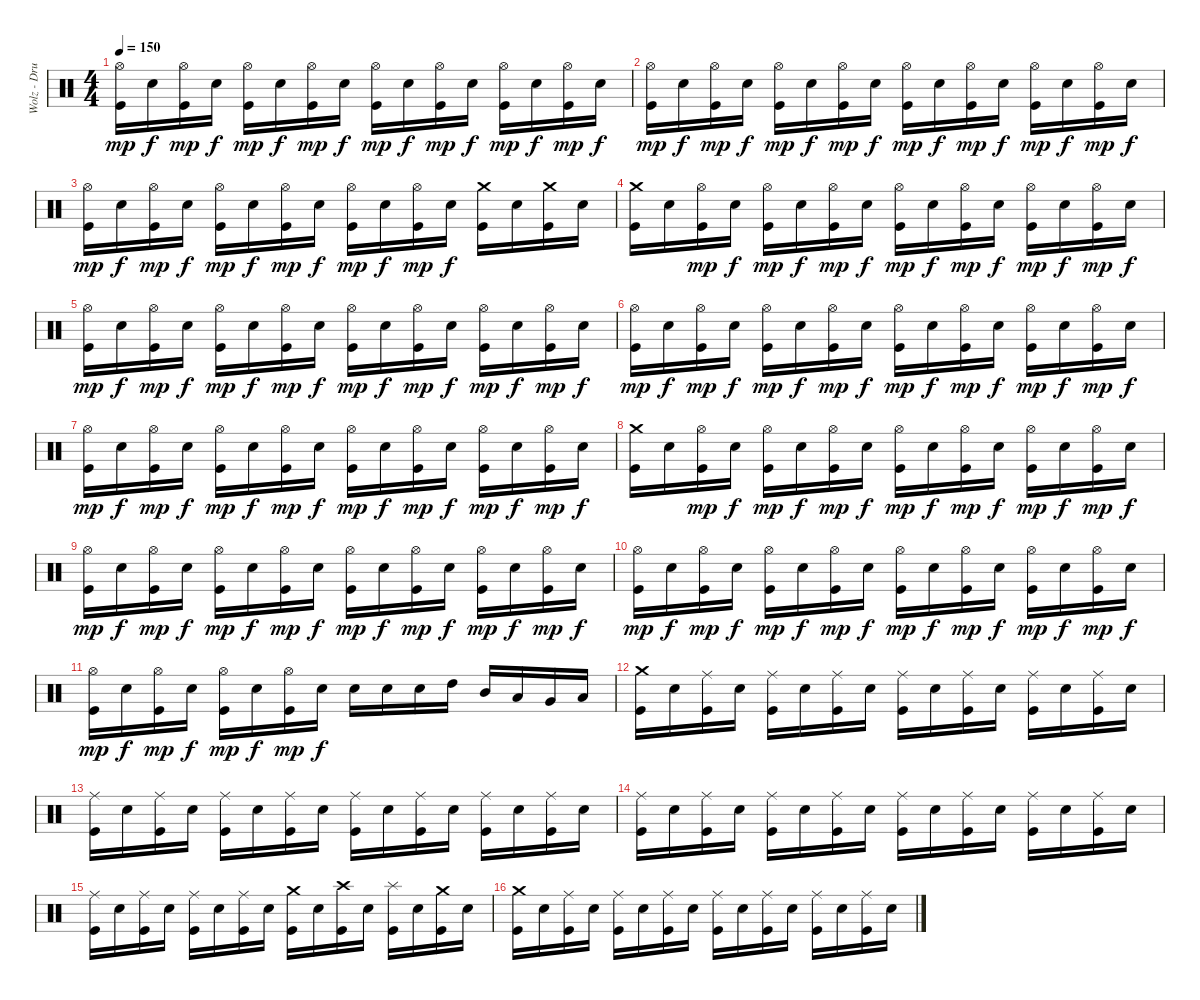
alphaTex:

\track ("Wolz - Drums" "Wolz - Dru") {instrument percussion}
\staff {score}
\articulation defaults
\ts (4 4)
\tempo 150
\clef neutral
\ks c
("Hi-Hat (open)" "Kick (hit)").16{dy mp} "Electric Snare (hit)".16{dy f} ("Hi-Hat (open)" "Kick (hit)").16{dy mp} "Electric Snare (hit)".16{dy f} ("Hi-Hat (open)" "Kick (hit)").16{dy mp} "Electric Snare (hit)".16{dy f} ("Hi-Hat (open)" "Kick (hit)").16{dy mp} "Electric Snare (hit)".16{dy f} ("Hi-Hat (open)" "Kick (hit)").16{dy mp} "Electric Snare (hit)".16{dy f} ("Hi-Hat (open)" "Kick (hit)").16{dy mp} "Electric Snare (hit)".16{dy f} ("Hi-Hat (open)" "Kick (hit)").16{dy mp} "Electric Snare (hit)".16{dy f} ("Hi-Hat (open)" "Kick (hit)").16{dy mp} "Electric Snare (hit)".16{dy f} |
("Hi-Hat (open)" "Kick (hit)").16{dy mp} "Electric Snare (hit)".16{dy f} ("Hi-Hat (open)" "Kick (hit)").16{dy mp} "Electric Snare (hit)".16{dy f} ("Hi-Hat (open)" "Kick (hit)").16{dy mp} "Electric Snare (hit)".16{dy f} ("Hi-Hat (open)" "Kick (hit)").16{dy mp} "Electric Snare (hit)".16{dy f} ("Hi-Hat (open)" "Kick (hit)").16{dy mp} "Electric Snare (hit)".16{dy f} ("Hi-Hat (open)" "Kick (hit)").16{dy mp} "Electric Snare (hit)".16{dy f} ("Hi-Hat (open)" "Kick (hit)").16{dy mp} "Electric Snare (hit)".16{dy f} ("Hi-Hat (open)" "Kick (hit)").16{dy mp} "Electric Snare (hit)".16{dy f} |
("Hi-Hat (open)" "Kick (hit)").16{dy mp} "Electric Snare (hit)".16{dy f} ("Hi-Hat (open)" "Kick (hit)").16{dy mp} "Electric Snare (hit)".16{dy f} ("Hi-Hat (open)" "Kick (hit)").16{dy mp} "Electric Snare (hit)".16{dy f} ("Hi-Hat (open)" "Kick (hit)").16{dy mp} "Electric Snare (hit)".16{dy f} ("Hi-Hat (open)" "Kick (hit)").16{dy mp} "Electric Snare (hit)".16{dy f} ("Hi-Hat (open)" "Kick (hit)").16{dy mp} "Electric Snare (hit)".16{dy f} ("Crash medium (hit)" "Kick (hit)").16 "Electric Snare (hit)".16 ("Crash medium (hit)" "Kick (hit)").16 "Electric Snare (hit)".16 |
("Crash medium (hit)" "Kick (hit)").16 "Electric Snare (hit)".16 ("Hi-Hat (open)" "Kick (hit)").16{dy mp} "Electric Snare (hit)".16{dy f} ("Hi-Hat (open)" "Kick (hit)").16{dy mp} "Electric Snare (hit)".16{dy f} ("Hi-Hat (open)" "Kick (hit)").16{dy mp} "Electric Snare (hit)".16{dy f} ("Hi-Hat (open)" "Kick (hit)").16{dy mp} "Electric Snare (hit)".16{dy f} ("Hi-Hat (open)" "Kick (hit)").16{dy mp} "Electric Snare (hit)".16{dy f} ("Hi-Hat (open)" "Kick (hit)").16{dy mp} "Electric Snare (hit)".16{dy f} ("Hi-Hat (open)" "Kick (hit)").16{dy mp} "Electric Snare (hit)".16{dy f} |
("Hi-Hat (open)" "Kick (hit)").16{dy mp} "Electric Snare (hit)".16{dy f} ("Hi-Hat (open)" "Kick (hit)").16{dy mp} "Electric Snare (hit)".16{dy f} ("Hi-Hat (open)" "Kick (hit)").16{dy mp} "Electric Snare (hit)".16{dy f} ("Hi-Hat (open)" "Kick (hit)").16{dy mp} "Electric Snare (hit)".16{dy f} ("Hi-Hat (open)" "Kick (hit)").16{dy mp} "Electric Snare (hit)".16{dy f} ("Hi-Hat (open)" "Kick (hit)").16{dy mp} "Electric Snare (hit)".16{dy f} ("Hi-Hat (open)" "Kick (hit)").16{dy mp} "Electric Snare (hit)".16{dy f} ("Hi-Hat (open)" "Kick (hit)").16{dy mp} "Electric Snare (hit)".16{dy f} |
("Hi-Hat (open)" "Kick (hit)").16{dy mp} "Electric Snare (hit)".16{dy f} ("Hi-Hat (open)" "Kick (hit)").16{dy mp} "Electric Snare (hit)".16{dy f} ("Hi-Hat (open)" "Kick (hit)").16{dy mp} "Electric Snare (hit)".16{dy f} ("Hi-Hat (open)" "Kick (hit)").16{dy mp} "Electric Snare (hit)".16{dy f} ("Hi-Hat (open)" "Kick (hit)").16{dy mp} "Electric Snare (hit)".16{dy f} ("Hi-Hat (open)" "Kick (hit)").16{dy mp} "Electric Snare (hit)".16{dy f} ("Hi-Hat (open)" "Kick (hit)").16{dy mp} "Electric Snare (hit)".16{dy f} ("Hi-Hat (open)" "Kick (hit)").16{dy mp} "Electric Snare (hit)".16{dy f} |
("Hi-Hat (open)" "Kick (hit)").16{dy mp} "Electric Snare (hit)".16{dy f} ("Hi-Hat (open)" "Kick (hit)").16{dy mp} "Electric Snare (hit)".16{dy f} ("Hi-Hat (open)" "Kick (hit)").16{dy mp} "Electric Snare (hit)".16{dy f} ("Hi-Hat (open)" "Kick (hit)").16{dy mp} "Electric Snare (hit)".16{dy f} ("Hi-Hat (open)" "Kick (hit)").16{dy mp} "Electric Snare (hit)".16{dy f} ("Hi-Hat (open)" "Kick (hit)").16{dy mp} "Electric Snare (hit)".16{dy f} ("Hi-Hat (open)" "Kick (hit)").16{dy mp} "Electric Snare (hit)".16{dy f} ("Hi-Hat (open)" "Kick (hit)").16{dy mp} "Electric Snare (hit)".16{dy f} |
("Crash medium (hit)" "Kick (hit)").16 "Electric Snare (hit)".16 ("Hi-Hat (open)" "Kick (hit)").16{dy mp} "Electric Snare (hit)".16{dy f} ("Hi-Hat (open)" "Kick (hit)").16{dy mp} "Electric Snare (hit)".16{dy f} ("Hi-Hat (open)" "Kick (hit)").16{dy mp} "Electric Snare (hit)".16{dy f} ("Hi-Hat (open)" "Kick (hit)").16{dy mp} "Electric Snare (hit)".16{dy f} ("Hi-Hat (open)" "Kick (hit)").16{dy mp} "Electric Snare (hit)".16{dy f} ("Hi-Hat (open)" "Kick (hit)").16{dy mp} "Electric Snare (hit)".16{dy f} ("Hi-Hat (open)" "Kick (hit)").16{dy mp} "Electric Snare (hit)".16{dy f} |
("Hi-Hat (open)" "Kick (hit)").16{dy mp} "Electric Snare (hit)".16{dy f} ("Hi-Hat (open)" "Kick (hit)").16{dy mp} "Electric Snare (hit)".16{dy f} ("Hi-Hat (open)" "Kick (hit)").16{dy mp} "Electric Snare (hit)".16{dy f} ("Hi-Hat (open)" "Kick (hit)").16{dy mp} "Electric Snare (hit)".16{dy f} ("Hi-Hat (open)" "Kick (hit)").16{dy mp} "Electric Snare (hit)".16{dy f} ("Hi-Hat (open)" "Kick (hit)").16{dy mp} "Electric Snare (hit)".16{dy f} ("Hi-Hat (open)" "Kick (hit)").16{dy mp} "Electric Snare (hit)".16{dy f} ("Hi-Hat (open)" "Kick (hit)").16{dy mp} "Electric Snare (hit)".16{dy f} |
("Hi-Hat (open)" "Kick (hit)").16{dy mp} "Electric Snare (hit)".16{dy f} ("Hi-Hat (open)" "Kick (hit)").16{dy mp} "Electric Snare (hit)".16{dy f} ("Hi-Hat (open)" "Kick (hit)").16{dy mp} "Electric Snare (hit)".16{dy f} ("Hi-Hat (open)" "Kick (hit)").16{dy mp} "Electric Snare (hit)".16{dy f} ("Hi-Hat (open)" "Kick (hit)").16{dy mp} "Electric Snare (hit)".16{dy f} ("Hi-Hat (open)" "Kick (hit)").16{dy mp} "Electric Snare (hit)".16{dy f} ("Hi-Hat (open)" "Kick (hit)").16{dy mp} "Electric Snare (hit)".16{dy f} ("Hi-Hat (open)" "Kick (hit)").16{dy mp} "Electric Snare (hit)".16{dy f} |
("Hi-Hat (open)" "Kick (hit)").16{dy mp} "Electric Snare (hit)".16{dy f} ("Hi-Hat (open)" "Kick (hit)").16{dy mp} "Electric Snare (hit)".16{dy f} ("Hi-Hat (open)" "Kick (hit)").16{dy mp} "Electric Snare (hit)".16{dy f} ("Hi-Hat (open)" "Kick (hit)").16{dy mp} "Electric Snare (hit)".16{dy f} "Electric Snare (hit)".16 "Electric Snare (hit)".16 "Electric Snare (hit)".16 "High Tom (hit)".16 "Mid Tom (hit)".16 "Low Tom (hit)".16 "Very Low Tom (hit)".16 "Low Floor Tom (hit)".16 |
("Crash medium (hit)" "Kick (hit)").16 "Electric Snare (hit)".16 ("Ride (middle)" "Kick (hit)").16 "Electric Snare (hit)".16 ("Ride (middle)" "Kick (hit)").16 "Electric Snare (hit)".16 ("Ride (middle)" "Kick (hit)").16 "Electric Snare (hit)".16 ("Ride (middle)" "Kick (hit)").16 "Electric Snare (hit)".16 ("Ride (middle)" "Kick (hit)").16 "Electric Snare (hit)".16 ("Ride (middle)" "Kick (hit)").16 "Electric Snare (hit)".16 ("Ride (middle)" "Kick (hit)").16 "Electric Snare (hit)".16 |
("Ride (middle)" "Kick (hit)").16 "Electric Snare (hit)".16 ("Ride (middle)" "Kick (hit)").16 "Electric Snare (hit)".16 ("Ride (middle)" "Kick (hit)").16 "Electric Snare (hit)".16 ("Ride (middle)" "Kick (hit)").16 "Electric Snare (hit)".16 ("Ride (middle)" "Kick (hit)").16 "Electric Snare (hit)".16 ("Ride (middle)" "Kick (hit)").16 "Electric Snare (hit)".16 ("Ride (middle)" "Kick (hit)").16 "Electric Snare (hit)".16 ("Ride (middle)" "Kick (hit)").16 "Electric Snare (hit)".16 |
("Ride (middle)" "Kick (hit)").16 "Electric Snare (hit)".16 ("Ride (middle)" "Kick (hit)").16 "Electric Snare (hit)".16 ("Ride (middle)" "Kick (hit)").16 "Electric Snare (hit)".16 ("Ride (middle)" "Kick (hit)").16 "Electric Snare (hit)".16 ("Ride (middle)" "Kick (hit)").16 "Electric Snare (hit)".16 ("Ride (middle)" "Kick (hit)").16 "Electric Snare (hit)".16 ("Ride (middle)" "Kick (hit)").16 "Electric Snare (hit)".16 ("Ride (middle)" "Kick (hit)").16 "Electric Snare (hit)".16 |
("Ride (middle)" "Kick (hit)").16 "Electric Snare (hit)".16 ("Ride (middle)" "Kick (hit)").16 "Electric Snare (hit)".16 ("Ride (middle)" "Kick (hit)").16 "Electric Snare (hit)".16 ("Ride (middle)" "Kick (hit)").16 "Electric Snare (hit)".16 ("Crash medium (hit)" "Kick (hit)").16 "Electric Snare (hit)".16 ("Crash high (hit)" "Kick (hit)").16 "Electric Snare (hit)".16 ("Splash (hit)" "Kick (hit)").16 "Electric Snare (hit)".16 ("Crash medium (hit)" "Kick (hit)").16 "Electric Snare (hit)".16 |
("Crash medium (hit)" "Kick (hit)").16 "Electric Snare (hit)".16 ("Ride (middle)" "Kick (hit)").16 "Electric Snare (hit)".16 ("Ride (middle)" "Kick (hit)").16 "Electric Snare (hit)".16 ("Ride (middle)" "Kick (hit)").16 "Electric Snare (hit)".16 ("Ride (middle)" "Kick (hit)").16 "Electric Snare (hit)".16 ("Ride (middle)" "Kick (hit)").16 "Electric Snare (hit)".16 ("Ride (middle)" "Kick (hit)").16 "Electric Snare (hit)".16 ("Ride (middle)" "Kick (hit)").16 "Electric Snare (hit)".16
